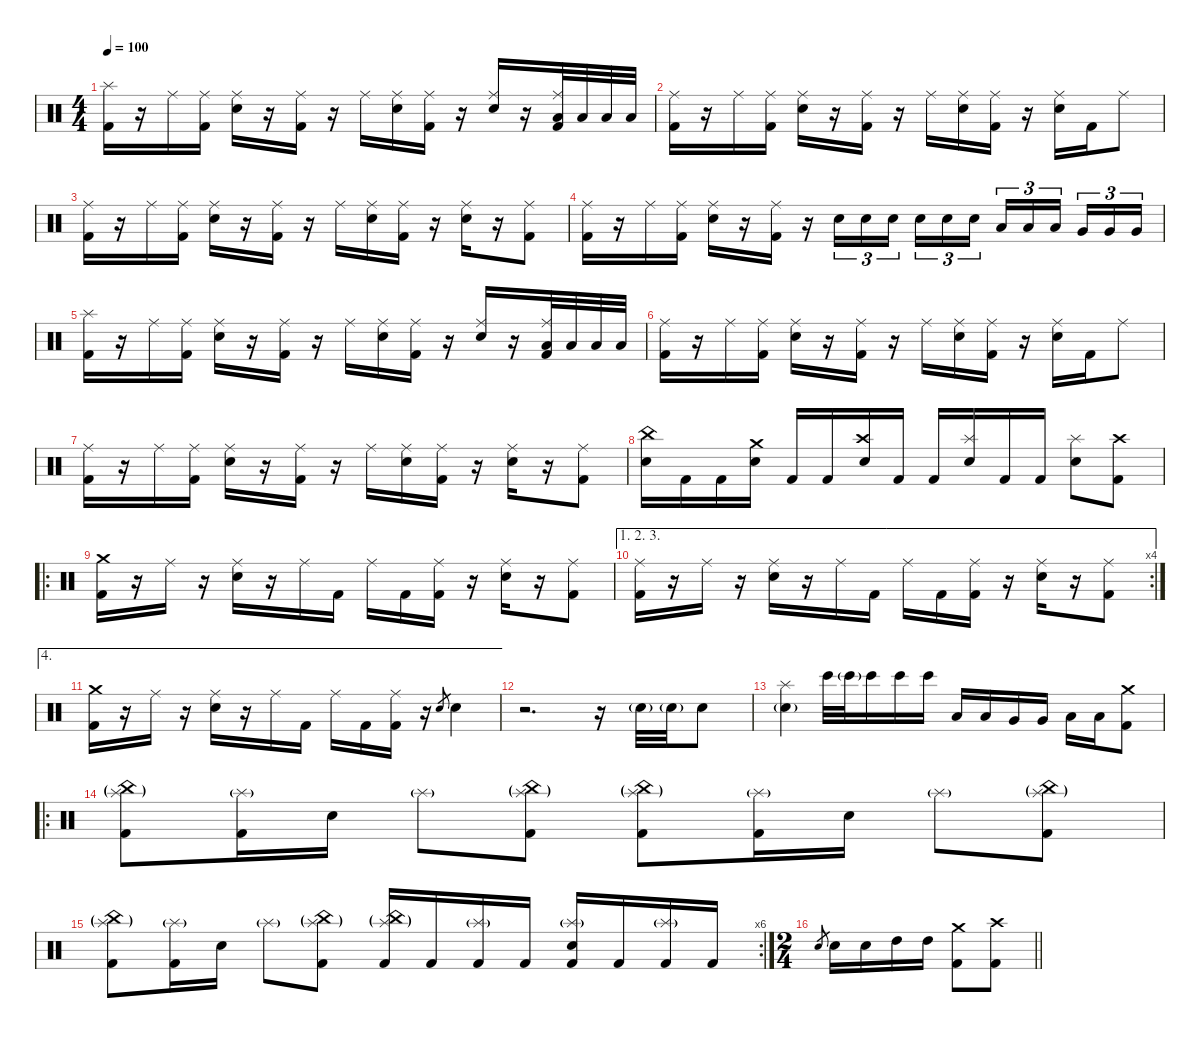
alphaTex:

\defaultSystemsLayout 4
\hideDynamics
\bracketExtendMode nobrackets
\singleTrackTrackNamePolicy hidden
\multiTrackTrackNamePolicy hidden
\firstSystemTrackNameMode fullname
\firstSystemTrackNameOrientation horizontal
\otherSystemsTrackNameOrientation horizontal
\track ("Drums" "drm.") {instrument percussion}
\staff {score}
\articulation defaults
\ts (4 4)
\tempo 100
\clef neutral
\ks c
("Splash (hit)" "Kick (hit) 2").16{dy f beam Down} r.16{beam Down} "Ride (middle)".16{beam Down} ("Ride (middle)" "Kick (hit) 2").16{beam Down} ("Ride (middle)" "Snare (hit) 2").16{beam Down} r.16{beam Down} ("Ride (middle)" "Kick (hit) 2").16{beam Down} r.16{beam Down} "Ride (middle)".16{beam Down} ("Ride (middle)" "Snare (hit) 2").16{beam Down} ("Ride (middle)" "Kick (hit) 2").16{beam Down} r.16{beam Down} ("Ride (middle)" "Snare (hit) 2").16{beam Up} r.16{beam Up} ("Ride (middle)" "Low Floor Tom (hit)" "Kick (hit) 2").32{beam Up} "Low Floor Tom (hit)".32{dy mf beam Up} "Low Floor Tom (hit)".32{beam Up} "Low Floor Tom (hit)".32{dy f beam Up} |
("Ride (middle)" "Kick (hit) 2").16{beam Down} r.16{beam Down} "Ride (middle)".16{beam Down} ("Ride (middle)" "Kick (hit) 2").16{beam Down} ("Ride (middle)" "Snare (hit) 2").16{beam Down} r.16{beam Down} ("Ride (middle)" "Kick (hit) 2").16{beam Down} r.16{beam Down} "Ride (middle)".16{beam Down} ("Ride (middle)" "Snare (hit) 2").16{beam Down} ("Ride (middle)" "Kick (hit) 2").16{beam Down} r.16{beam Down} ("Ride (middle)" "Snare (hit) 2").16{beam Down} "Kick (hit) 2".16{beam Down} "Ride (middle)".8{beam Down} |
("Ride (middle)" "Kick (hit) 2").16{beam Down} r.16{beam Down} "Ride (middle)".16{beam Down} ("Ride (middle)" "Kick (hit) 2").16{beam Down} ("Ride (middle)" "Snare (hit) 2").16{beam Down} r.16{beam Down} ("Ride (middle)" "Kick (hit) 2").16{beam Down} r.16{beam Down} "Ride (middle)".16{beam Down} ("Ride (middle)" "Snare (hit) 2").16{beam Down} ("Ride (middle)" "Kick (hit) 2").16{beam Down} r.16{beam Down} ("Ride (middle)" "Snare (hit) 2").16{beam Down} r.16{beam Down} ("Ride (middle)" "Kick (hit) 2").8{beam Down} |
("Ride (middle)" "Kick (hit) 2").16{beam Down} r.16{beam Down} "Ride (middle)".16{beam Down} ("Ride (middle)" "Kick (hit) 2").16{beam Down} ("Ride (middle)" "Snare (hit) 2").16{beam Down} r.16{beam Down} ("Ride (middle)" "Kick (hit) 2").16{beam Down} r.16{beam Down} "Snare (hit) 2".16{tu (3 2) dy mf beam Down} "Snare (hit) 2".16{tu (3 2) beam Down} "Snare (hit) 2".16{tu (3 2) dy f beam Down} "Snare (hit) 2".16{tu (3 2) beam Down} "Snare (hit) 2".16{tu (3 2) dy ff beam Down} "Snare (hit) 2".16{tu (3 2) beam Down} "Low Tom (hit)".16{tu (3 2) beam Up} "Low Tom (hit)".16{tu (3 2) beam Up} "Low Tom (hit)".16{tu (3 2) beam Up} "Very Low Tom (hit)".16{tu (3 2) beam Up} "Very Low Tom (hit)".16{tu (3 2) beam Up} "Very Low Tom (hit)".16{tu (3 2) beam Up} |
("Splash (hit)" "Kick (hit) 2").16{dy f beam Down} r.16{beam Down} "Ride (middle)".16{beam Down} ("Ride (middle)" "Kick (hit) 2").16{beam Down} ("Ride (middle)" "Snare (hit) 2").16{beam Down} r.16{beam Down} ("Ride (middle)" "Kick (hit) 2").16{beam Down} r.16{beam Down} "Ride (middle)".16{beam Down} ("Ride (middle)" "Snare (hit) 2").16{beam Down} ("Ride (middle)" "Kick (hit) 2").16{beam Down} r.16{beam Down} ("Ride (middle)" "Snare (hit) 2").16{beam Up} r.16{beam Up} ("Ride (middle)" "Low Floor Tom (hit)" "Kick (hit) 2").32{beam Up} "Low Floor Tom (hit)".32{dy mf beam Up} "Low Floor Tom (hit)".32{beam Up} "Low Floor Tom (hit)".32{dy f beam Up} |
("Ride (middle)" "Kick (hit) 2").16{beam Down} r.16{beam Down} "Ride (middle)".16{beam Down} ("Ride (middle)" "Kick (hit) 2").16{beam Down} ("Ride (middle)" "Snare (hit) 2").16{beam Down} r.16{beam Down} ("Ride (middle)" "Kick (hit) 2").16{beam Down} r.16{beam Down} "Ride (middle)".16{beam Down} ("Ride (middle)" "Snare (hit) 2").16{beam Down} ("Ride (middle)" "Kick (hit) 2").16{beam Down} r.16{beam Down} ("Ride (middle)" "Snare (hit) 2").16{beam Down} "Kick (hit) 2".16{beam Down} "Ride (middle)".8{beam Down} |
("Ride (middle)" "Kick (hit) 2").16{beam Down} r.16{beam Down} "Ride (middle)".16{beam Down} ("Ride (middle)" "Kick (hit) 2").16{beam Down} ("Ride (middle)" "Snare (hit) 2").16{beam Down} r.16{beam Down} ("Ride (middle)" "Kick (hit) 2").16{beam Down} r.16{beam Down} "Ride (middle)".16{beam Down} ("Ride (middle)" "Snare (hit) 2").16{beam Down} ("Ride (middle)" "Kick (hit) 2").16{beam Down} r.16{beam Down} ("Ride (middle)" "Snare (hit) 2").16{beam Down} r.16{beam Down} ("Ride (middle)" "Kick (hit) 2").8{beam Down} |
("China (hit)" "Snare (hit) 2").16{beam Down} "Kick (hit) 2".16{dy mf beam Down} "Kick (hit) 2".16{beam Down} ("Crash medium (hit)" "Snare (hit) 2").16{dy f beam Down} "Kick (hit) 2".16{dy mf beam Up} "Kick (hit) 2".16{beam Up} ("Crash high (hit)" "Snare (hit) 2").16{dy f beam Up} "Kick (hit) 2".16{dy mf beam Up} "Kick (hit) 2".16{beam Up} ("Splash (hit)" "Snare (hit) 2").16{dy f beam Up} "Kick (hit) 2".16{dy mf beam Up} "Kick (hit) 2".16{beam Up} ("Splash (hit)" "Snare (hit) 2").8{dy f beam Down} ("Crash high (hit)" "Kick (hit) 2").8{beam Down} |
\ro
("Crash medium (hit)" "Kick (hit) 2").16{beam Down} r.16{beam Down} "Ride (middle)".16{beam Down} r.16{beam Down} ("Ride (middle)" "Snare (hit) 2").16{beam Down} r.16{beam Down} "Ride (middle)".16{beam Down} "Kick (hit) 2".16{beam Down} "Ride (middle)".16{beam Down} "Kick (hit) 2".16{beam Down} ("Ride (middle)" "Kick (hit) 2").16{beam Down} r.16{beam Down} ("Ride (middle)" "Snare (hit) 2").16{beam Down} r.16{beam Down} ("Ride (middle)" "Kick (hit) 2").8{beam Down} |
\ae (1 2 3)
\rc 4
("Ride (middle)" "Kick (hit) 2").16{beam Down} r.16{beam Down} "Ride (middle)".16{beam Down} r.16{beam Down} ("Ride (middle)" "Snare (hit) 2").16{beam Down} r.16{beam Down} "Ride (middle)".16{beam Down} "Kick (hit) 2".16{beam Down} "Ride (middle)".16{beam Down} "Kick (hit) 2".16{beam Down} ("Ride (middle)" "Kick (hit) 2").16{beam Down} r.16{beam Down} ("Ride (middle)" "Snare (hit) 2").16{beam Down} r.16{beam Down} ("Ride (middle)" "Kick (hit) 2").8{beam Down} |
\ae 4
("Crash medium (hit)" "Kick (hit) 2").16{beam Down} r.16{beam Down} "Ride (middle)".16{beam Down} r.16{beam Down} ("Ride (middle)" "Snare (hit) 2").16{beam Down} r.16{beam Down} "Ride (middle)".16{beam Down} "Kick (hit) 2".16{beam Down} "Ride (middle)".16{beam Down} "Kick (hit) 2".16{beam Down} ("Ride (middle)" "Kick (hit) 2").16{beam Down} r.16{beam Down} "Electric Snare (hit)".8{gr dy mp beam Up} "Snare (hit) 2".4{dy f beam Down} |
r.2{d beam Down} r.16{beam Down} "Snare (hit) 2"{g}.32{dy mf beam Down} "Snare (hit) 2"{g}.32{beam Down} "Snare (hit) 2".8{dy f beam Down} |
("Splash (hit)" "Snare (hit) 2"{g}).4{dy mf beam Down} "Bongo High (hit)".32{dy fff beam Down} "Bongo High (hit)"{g}.32{beam Down} "Bongo High (hit)".16{beam Down} "Bongo High (hit)".16{beam Down} "Bongo High (hit)".16{beam Down} "Low Tom (hit)".16{dy f beam Up} "Low Tom (hit)".16{beam Up} "Very Low Tom (hit)".16{beam Up} "Very Low Tom (hit)".16{beam Up} "Low Floor Tom (hit)".16{beam Down} "Low Floor Tom (hit)".16{beam Down} ("Crash medium (hit)" "Kick (hit) 2").8{beam Down} |
\ro
("Splash (hit)"{g} "China (hit)"{g} "Kick (hit) 2").8{beam Down} ("Splash (hit)"{g} "Kick (hit) 2").16{beam Down} "Snare (hit) 2".16{beam Down} "Splash (hit)"{g}.8{dy mf beam Down} ("Splash (hit)"{g} "China (hit)"{g} "Kick (hit) 2").8{dy f beam Down} ("Splash (hit)"{g} "China (hit)"{g} "Kick (hit) 2").8{beam Down} ("Splash (hit)"{g} "Kick (hit) 2").16{beam Down} "Snare (hit) 2".16{beam Down} "Splash (hit)"{g}.8{dy mf beam Down} ("Splash (hit)"{g} "China (hit)"{g} "Kick (hit) 2").8{dy f beam Down} |
\rc 6
("Splash (hit)"{g} "China (hit)"{g} "Kick (hit) 2").8{beam Down} ("Splash (hit)"{g} "Kick (hit) 2").16{beam Down} "Snare (hit) 2".16{beam Down} "Splash (hit)"{g}.8{dy mf beam Down} ("Splash (hit)"{g} "China (hit)"{g} "Kick (hit) 2").8{dy f beam Down} ("Splash (hit)"{g} "China (hit)"{g} "Kick (hit) 2").16{beam Up} "Kick (hit) 2".16{beam Up} ("Splash (hit)"{g} "Kick (hit) 2").16{beam Up} "Kick (hit) 2".16{beam Up} ("Splash (hit)"{g} "Snare (hit) 2" "Kick (hit) 2").16{beam Up} "Kick (hit) 2".16{beam Up} ("Splash (hit)"{g} "Kick (hit) 2").16{beam Up} "Kick (hit) 2".16{beam Up} |
\ts (2 4)
\beaming (8 2 2)
\barLineRight lightlight "Electric Snare (hit)".8{gr dy mf beam Up} "Snare (hit) 2".16{dy f beam Down} "Snare (hit) 2".16{beam Down} "High Tom (hit)".16{beam Down} "High Tom (hit)".16{beam Down}
("Crash medium (hit)" "Kick (hit) 2").8{beam Down} ("Crash high (hit)" "Kick (hit) 2").8{beam Down}
